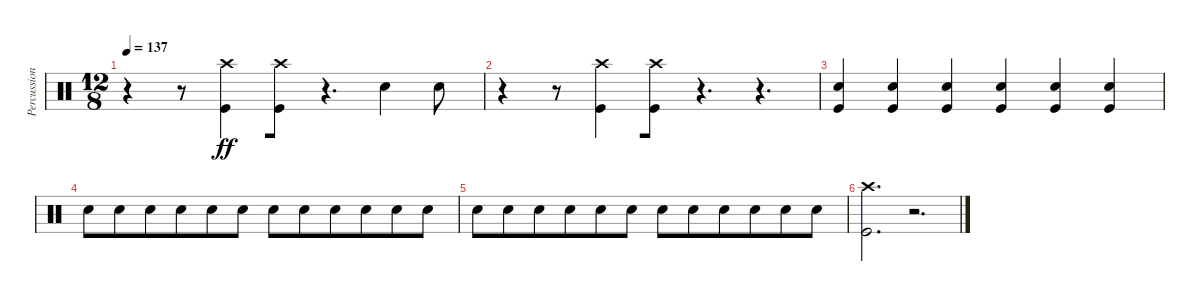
\track ("Percussion" "Percussion") {instrument percussion bank 255}
\staff {score}
\articulation defaults
\ts (12 8)
\tempo 137
\clef neutral
\ks c
r.4{dy ff} r.8{beam merge} ("Kick (hit)" "Crash high (hit)").4{beam merge} ("Kick (hit)" "Crash high (hit)").8 r.4{d} "Electric Snare (hit)".4 "Electric Snare (hit)".8 |
r.4 r.8{beam merge} ("Kick (hit)" "Crash high (hit)").4{beam merge} ("Kick (hit)" "Crash high (hit)").8 r.4{d} r.4{d} |
("Kick (hit)" "Electric Snare (hit)").4 ("Kick (hit)" "Electric Snare (hit)").4 ("Kick (hit)" "Electric Snare (hit)").4 ("Kick (hit)" "Electric Snare (hit)").4 ("Kick (hit)" "Electric Snare (hit)").4{beam merge} ("Kick (hit)" "Electric Snare (hit)").4 |
"Electric Snare (hit)".8 "Electric Snare (hit)".8 "Electric Snare (hit)".8{beam merge} "Electric Snare (hit)".8 "Electric Snare (hit)".8{beam merge} "Electric Snare (hit)".8 "Electric Snare (hit)".8 "Electric Snare (hit)".8 "Electric Snare (hit)".8{beam merge} "Electric Snare (hit)".8 "Electric Snare (hit)".8{beam merge} "Electric Snare (hit)".8 |
"Electric Snare (hit)".8 "Electric Snare (hit)".8 "Electric Snare (hit)".8{beam merge} "Electric Snare (hit)".8 "Electric Snare (hit)".8{beam merge} "Electric Snare (hit)".8 "Electric Snare (hit)".8 "Electric Snare (hit)".8 "Electric Snare (hit)".8{beam merge} "Electric Snare (hit)".8 "Electric Snare (hit)".8{beam merge} "Electric Snare (hit)".8 |
("Kick (hit)" "Crash high (hit)").2{d} r.2{d}
